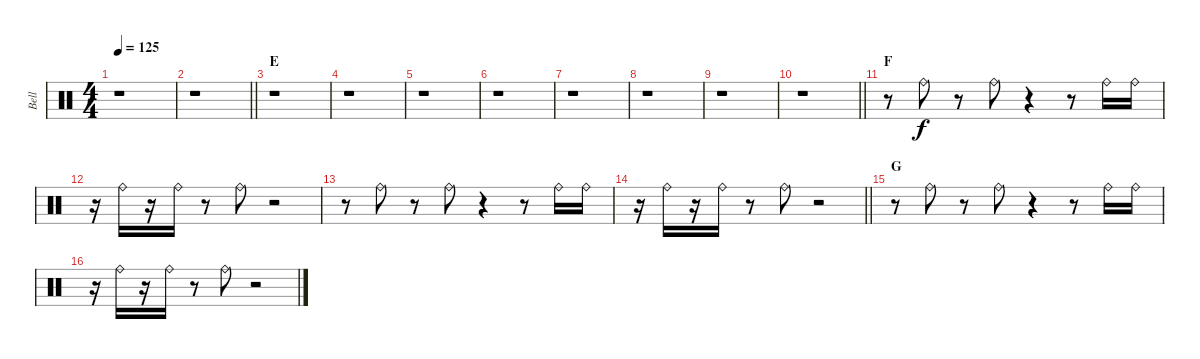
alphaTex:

\track ("Bell" "Bell") {instrument percussion}
\staff {score}
\articulation defaults
\ts (4 4)
\tempo 125
\clef neutral
\ks c
r.1{dy f} |
\barLineRight lightlight
r.1 |
\section ("" "E")
r.1 |
r.1 |
r.1 |
r.1 |
r.1 |
r.1 |
r.1 |
\barLineRight lightlight
r.1 |
\section ("" "F")
r.8 "Ride (bell)".8 r.8 "Ride (bell)".8 r.4 r.8 "Ride (bell)".16 "Ride (bell)".16 |
r.16 "Ride (bell)".16 r.16 "Ride (bell)".16 r.8 "Ride (bell)".8 r.2 |
r.8 "Ride (bell)".8 r.8 "Ride (bell)".8 r.4 r.8 "Ride (bell)".16 "Ride (bell)".16 |
\barLineRight lightlight
r.16 "Ride (bell)".16 r.16 "Ride (bell)".16 r.8 "Ride (bell)".8 r.2 |
\section ("" "G")
r.8 "Ride (bell)".8 r.8 "Ride (bell)".8 r.4 r.8 "Ride (bell)".16 "Ride (bell)".16 |
r.16 "Ride (bell)".16 r.16 "Ride (bell)".16 r.8 "Ride (bell)".8 r.2
